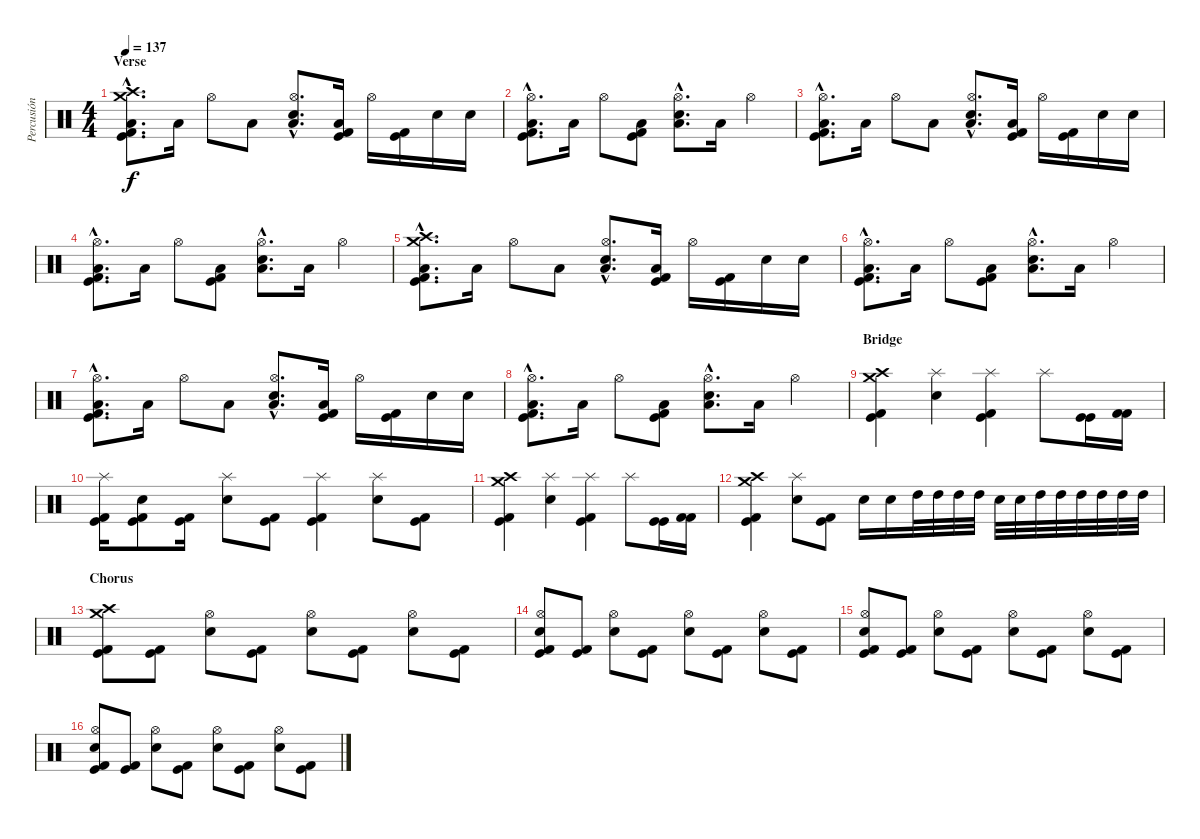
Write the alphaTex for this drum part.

\track ("Percusión" "Percusión") {instrument percussion}
\staff {score}
\articulation defaults
\ts (4 4)
\section ("" "Verse")
\tempo 137
\clef neutral
\ks c
("Crash medium (hit)"{hac} "Crash high (hit)"{hac} "Low Floor Tom (hit)"{hac} "Kick (hit) 2"{hac} "Kick (hit)"{hac}).8{d dy f} "Low Floor Tom (hit)".16 "Hi-Hat (open)".8 "Low Floor Tom (hit)".8 ("Hi-Hat (open)"{hac} "Electric Snare (hit)"{hac} "Low Floor Tom (hit)"{hac}).8{d} ("Low Floor Tom (hit)" "Kick (hit)" "Kick (hit) 2").16 "Hi-Hat (open)".16 ("Kick (hit) 2" "Kick (hit)").16 "Electric Snare (hit)".16 "Electric Snare (hit)".16 |
("Hi-Hat (open)"{hac} "Low Floor Tom (hit)"{hac} "Kick (hit) 2"{hac} "Kick (hit)"{hac}).8{d} "Low Floor Tom (hit)".16 "Hi-Hat (open)".8 ("Low Floor Tom (hit)" "Kick (hit)" "Kick (hit) 2").8 ("Hi-Hat (open)"{hac} "Electric Snare (hit)"{hac} "Low Floor Tom (hit)"{hac}).8{d} "Low Floor Tom (hit)".16 "Hi-Hat (open)".4 |
("Hi-Hat (open)"{hac} "Low Floor Tom (hit)"{hac} "Kick (hit) 2"{hac} "Kick (hit)"{hac}).8{d} "Low Floor Tom (hit)".16 "Hi-Hat (open)".8 "Low Floor Tom (hit)".8 ("Hi-Hat (open)"{hac} "Electric Snare (hit)"{hac} "Low Floor Tom (hit)"{hac}).8{d} ("Low Floor Tom (hit)" "Kick (hit)" "Kick (hit) 2").16 "Hi-Hat (open)".16 ("Kick (hit) 2" "Kick (hit)").16 "Electric Snare (hit)".16 "Electric Snare (hit)".16 |
("Hi-Hat (open)"{hac} "Low Floor Tom (hit)"{hac} "Kick (hit) 2"{hac} "Kick (hit)"{hac}).8{d} "Low Floor Tom (hit)".16 "Hi-Hat (open)".8 ("Low Floor Tom (hit)" "Kick (hit)" "Kick (hit) 2").8 ("Hi-Hat (open)"{hac} "Electric Snare (hit)"{hac} "Low Floor Tom (hit)"{hac}).8{d} "Low Floor Tom (hit)".16 "Hi-Hat (open)".4 |
("Crash medium (hit)"{hac} "Crash high (hit)"{hac} "Low Floor Tom (hit)"{hac} "Kick (hit) 2"{hac} "Kick (hit)"{hac}).8{d} "Low Floor Tom (hit)".16 "Hi-Hat (open)".8 "Low Floor Tom (hit)".8 ("Hi-Hat (open)"{hac} "Electric Snare (hit)"{hac} "Low Floor Tom (hit)"{hac}).8{d} ("Low Floor Tom (hit)" "Kick (hit)" "Kick (hit) 2").16 "Hi-Hat (open)".16 ("Kick (hit) 2" "Kick (hit)").16 "Electric Snare (hit)".16 "Electric Snare (hit)".16 |
("Hi-Hat (open)"{hac} "Low Floor Tom (hit)"{hac} "Kick (hit) 2"{hac} "Kick (hit)"{hac}).8{d} "Low Floor Tom (hit)".16 "Hi-Hat (open)".8 ("Low Floor Tom (hit)" "Kick (hit)" "Kick (hit) 2").8 ("Hi-Hat (open)"{hac} "Electric Snare (hit)"{hac} "Low Floor Tom (hit)"{hac}).8{d} "Low Floor Tom (hit)".16 "Hi-Hat (open)".4 |
("Hi-Hat (open)"{hac} "Low Floor Tom (hit)"{hac} "Kick (hit) 2"{hac} "Kick (hit)"{hac}).8{d} "Low Floor Tom (hit)".16 "Hi-Hat (open)".8 "Low Floor Tom (hit)".8 ("Hi-Hat (open)"{hac} "Electric Snare (hit)"{hac} "Low Floor Tom (hit)"{hac}).8{d} ("Low Floor Tom (hit)" "Kick (hit)" "Kick (hit) 2").16 "Hi-Hat (open)".16 ("Kick (hit) 2" "Kick (hit)").16 "Electric Snare (hit)".16 "Electric Snare (hit)".16 |
("Hi-Hat (open)"{hac} "Low Floor Tom (hit)"{hac} "Kick (hit) 2"{hac} "Kick (hit)"{hac}).8{d} "Low Floor Tom (hit)".16 "Hi-Hat (open)".8 ("Low Floor Tom (hit)" "Kick (hit)" "Kick (hit) 2").8 ("Hi-Hat (open)"{hac} "Electric Snare (hit)"{hac} "Low Floor Tom (hit)"{hac}).8{d} "Low Floor Tom (hit)".16 "Hi-Hat (open)".4 |
\section ("" "Bridge")
("Crash medium (hit)" "Crash high (hit)" "Kick (hit)" "Kick (hit) 2").4 ("Splash (hit)" "Electric Snare (hit)").4 ("Splash (hit)" "Kick (hit) 2" "Kick (hit)").4 "Splash (hit)".8 ("Kick (hit)" "Kick (hit)").16 ("Kick (hit) 2" "Kick (hit) 2").16 |
("Splash (hit)" "Kick (hit)" "Kick (hit) 2").16 ("Electric Snare (hit)" "Kick (hit) 2" "Kick (hit)").8 ("Kick (hit)" "Kick (hit) 2").16 ("Splash (hit)" "Electric Snare (hit)").8 ("Kick (hit)" "Kick (hit) 2").8 ("Splash (hit)" "Kick (hit)" "Kick (hit) 2").4 ("Splash (hit)" "Electric Snare (hit)").8 ("Kick (hit) 2" "Kick (hit)").8 |
("Crash medium (hit)" "Crash high (hit)" "Kick (hit)" "Kick (hit) 2").4 ("Splash (hit)" "Electric Snare (hit)").4 ("Splash (hit)" "Kick (hit) 2" "Kick (hit)").4 "Splash (hit)".8 ("Kick (hit)" "Kick (hit)").16 ("Kick (hit) 2" "Kick (hit) 2").16 |
("Crash medium (hit)" "Crash high (hit)" "Kick (hit)" "Kick (hit) 2").4 ("Splash (hit)" "Electric Snare (hit)").8 ("Kick (hit)" "Kick (hit) 2").8 "Electric Snare (hit)".16 "Electric Snare (hit)".16 "High Tom (hit)".32 "High Tom (hit)".32 "High Tom (hit)".32 "High Tom (hit)".32 "Electric Snare (hit)".32 "Electric Snare (hit)".32 "High Tom (hit)".32 "High Tom (hit)".32 "High Tom (hit)".32 "High Tom (hit)".32 "High Tom (hit)".32 "High Tom (hit)".32 |
\section ("" "Chorus")
("Crash medium (hit)" "Crash high (hit)" "Kick (hit) 2" "Kick (hit)").8 ("Kick (hit)" "Kick (hit) 2").8 ("Hi-Hat (open)" "Electric Snare (hit)").8 ("Kick (hit)" "Kick (hit) 2").8 ("Hi-Hat (open)" "Electric Snare (hit)").8 ("Kick (hit)" "Kick (hit) 2").8 ("Hi-Hat (open)" "Electric Snare (hit)").8 ("Kick (hit) 2" "Kick (hit)").8 |
("Hi-Hat (open)" "Electric Snare (hit)" "Kick (hit) 2" "Kick (hit)").8 ("Kick (hit)" "Kick (hit) 2").8 ("Hi-Hat (open)" "Electric Snare (hit)").8 ("Kick (hit)" "Kick (hit) 2").8 ("Hi-Hat (open)" "Electric Snare (hit)").8 ("Kick (hit)" "Kick (hit) 2").8 ("Hi-Hat (open)" "Electric Snare (hit)").8 ("Kick (hit) 2" "Kick (hit)").8 |
("Hi-Hat (open)" "Electric Snare (hit)" "Kick (hit) 2" "Kick (hit)").8 ("Kick (hit)" "Kick (hit) 2").8 ("Hi-Hat (open)" "Electric Snare (hit)").8 ("Kick (hit)" "Kick (hit) 2").8 ("Hi-Hat (open)" "Electric Snare (hit)").8 ("Kick (hit)" "Kick (hit) 2").8 ("Hi-Hat (open)" "Electric Snare (hit)").8 ("Kick (hit) 2" "Kick (hit)").8 |
("Hi-Hat (open)" "Electric Snare (hit)" "Kick (hit) 2" "Kick (hit)").8 ("Kick (hit)" "Kick (hit) 2").8 ("Hi-Hat (open)" "Electric Snare (hit)").8 ("Kick (hit)" "Kick (hit) 2").8 ("Hi-Hat (open)" "Electric Snare (hit)").8 ("Kick (hit)" "Kick (hit) 2").8 ("Hi-Hat (open)" "Electric Snare (hit)").8 ("Kick (hit) 2" "Kick (hit)").8
